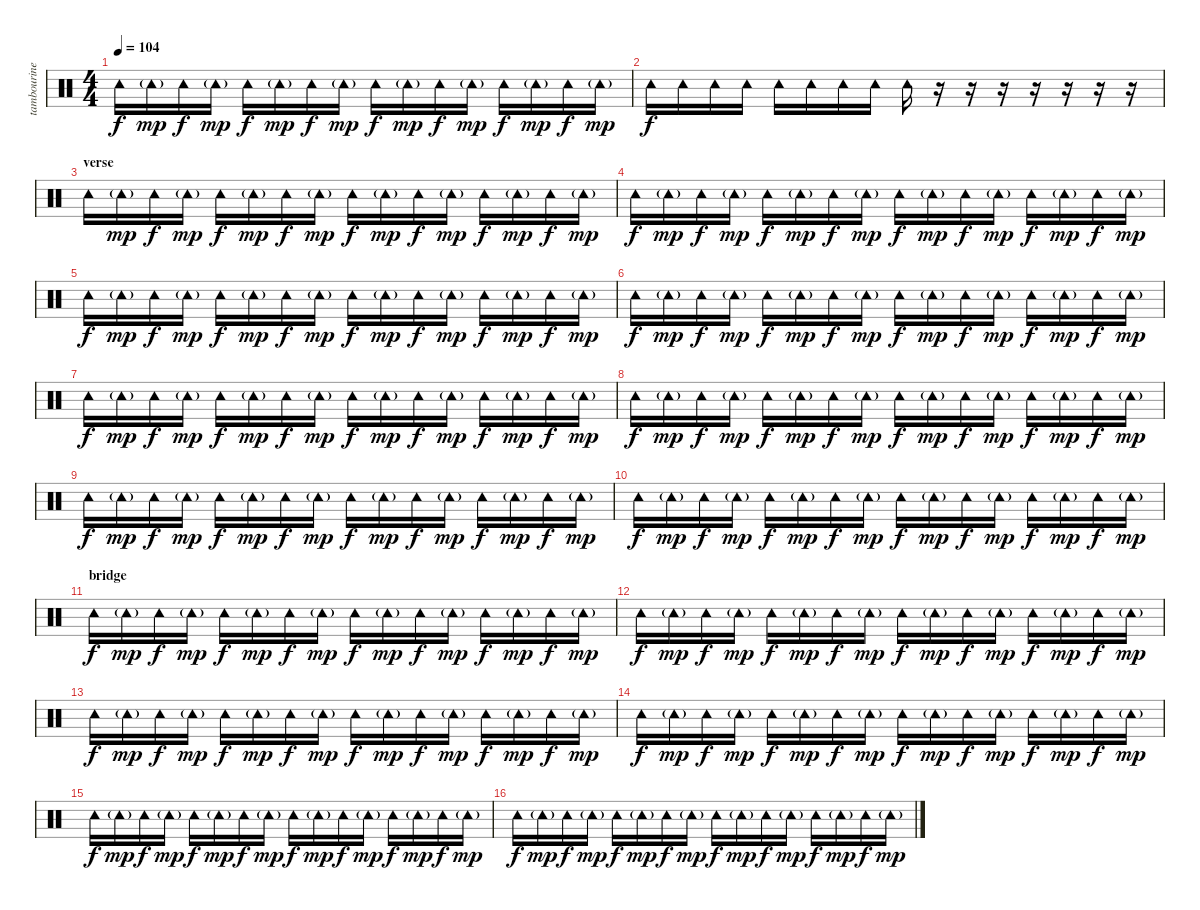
\track ("tambourine" "tambourine") {instrument percussion}
\staff {score}
\articulation defaults
\ts (4 4)
\tempo 104
\clef neutral
\ks c "Tambourine (hit)".16{dy f} "Tambourine (hit)"{g}.16{dy mp} "Tambourine (hit)".16{dy f} "Tambourine (hit)"{g}.16{dy mp} "Tambourine (hit)".16{dy f} "Tambourine (hit)"{g}.16{dy mp} "Tambourine (hit)".16{dy f} "Tambourine (hit)"{g}.16{dy mp} "Tambourine (hit)".16{dy f} "Tambourine (hit)"{g}.16{dy mp} "Tambourine (hit)".16{dy f} "Tambourine (hit)"{g}.16{dy mp} "Tambourine (hit)".16{dy f} "Tambourine (hit)"{g}.16{dy mp} "Tambourine (hit)".16{dy f} "Tambourine (hit)"{g}.16{dy mp}
|
"Tambourine (hit)".16{dy f} "Tambourine (hit)".16 "Tambourine (hit)".16 "Tambourine (hit)".16 "Tambourine (hit)".16 "Tambourine (hit)".16 "Tambourine (hit)".16 "Tambourine (hit)".16 "Tambourine (hit)".16 r.16 r.16 r.16 r.16 r.16 r.16 r.16 |
\section ("" "verse")
"Tambourine (hit)".16 "Tambourine (hit)"{g}.16{dy mp} "Tambourine (hit)".16{dy f} "Tambourine (hit)"{g}.16{dy mp} "Tambourine (hit)".16{dy f} "Tambourine (hit)"{g}.16{dy mp} "Tambourine (hit)".16{dy f} "Tambourine (hit)"{g}.16{dy mp} "Tambourine (hit)".16{dy f} "Tambourine (hit)"{g}.16{dy mp} "Tambourine (hit)".16{dy f} "Tambourine (hit)"{g}.16{dy mp} "Tambourine (hit)".16{dy f} "Tambourine (hit)"{g}.16{dy mp} "Tambourine (hit)".16{dy f} "Tambourine (hit)"{g}.16{dy mp} |
"Tambourine (hit)".16{dy f} "Tambourine (hit)"{g}.16{dy mp} "Tambourine (hit)".16{dy f} "Tambourine (hit)"{g}.16{dy mp} "Tambourine (hit)".16{dy f} "Tambourine (hit)"{g}.16{dy mp} "Tambourine (hit)".16{dy f} "Tambourine (hit)"{g}.16{dy mp} "Tambourine (hit)".16{dy f} "Tambourine (hit)"{g}.16{dy mp} "Tambourine (hit)".16{dy f} "Tambourine (hit)"{g}.16{dy mp} "Tambourine (hit)".16{dy f} "Tambourine (hit)"{g}.16{dy mp} "Tambourine (hit)".16{dy f} "Tambourine (hit)"{g}.16{dy mp} |
"Tambourine (hit)".16{dy f} "Tambourine (hit)"{g}.16{dy mp} "Tambourine (hit)".16{dy f} "Tambourine (hit)"{g}.16{dy mp} "Tambourine (hit)".16{dy f} "Tambourine (hit)"{g}.16{dy mp} "Tambourine (hit)".16{dy f} "Tambourine (hit)"{g}.16{dy mp} "Tambourine (hit)".16{dy f} "Tambourine (hit)"{g}.16{dy mp} "Tambourine (hit)".16{dy f} "Tambourine (hit)"{g}.16{dy mp} "Tambourine (hit)".16{dy f} "Tambourine (hit)"{g}.16{dy mp} "Tambourine (hit)".16{dy f} "Tambourine (hit)"{g}.16{dy mp} |
"Tambourine (hit)".16{dy f} "Tambourine (hit)"{g}.16{dy mp} "Tambourine (hit)".16{dy f} "Tambourine (hit)"{g}.16{dy mp} "Tambourine (hit)".16{dy f} "Tambourine (hit)"{g}.16{dy mp} "Tambourine (hit)".16{dy f} "Tambourine (hit)"{g}.16{dy mp} "Tambourine (hit)".16{dy f} "Tambourine (hit)"{g}.16{dy mp} "Tambourine (hit)".16{dy f} "Tambourine (hit)"{g}.16{dy mp} "Tambourine (hit)".16{dy f} "Tambourine (hit)"{g}.16{dy mp} "Tambourine (hit)".16{dy f} "Tambourine (hit)"{g}.16{dy mp} |
"Tambourine (hit)".16{dy f} "Tambourine (hit)"{g}.16{dy mp} "Tambourine (hit)".16{dy f} "Tambourine (hit)"{g}.16{dy mp} "Tambourine (hit)".16{dy f} "Tambourine (hit)"{g}.16{dy mp} "Tambourine (hit)".16{dy f} "Tambourine (hit)"{g}.16{dy mp} "Tambourine (hit)".16{dy f} "Tambourine (hit)"{g}.16{dy mp} "Tambourine (hit)".16{dy f} "Tambourine (hit)"{g}.16{dy mp} "Tambourine (hit)".16{dy f} "Tambourine (hit)"{g}.16{dy mp} "Tambourine (hit)".16{dy f} "Tambourine (hit)"{g}.16{dy mp} |
"Tambourine (hit)".16{dy f} "Tambourine (hit)"{g}.16{dy mp} "Tambourine (hit)".16{dy f} "Tambourine (hit)"{g}.16{dy mp} "Tambourine (hit)".16{dy f} "Tambourine (hit)"{g}.16{dy mp} "Tambourine (hit)".16{dy f} "Tambourine (hit)"{g}.16{dy mp} "Tambourine (hit)".16{dy f} "Tambourine (hit)"{g}.16{dy mp} "Tambourine (hit)".16{dy f} "Tambourine (hit)"{g}.16{dy mp} "Tambourine (hit)".16{dy f} "Tambourine (hit)"{g}.16{dy mp} "Tambourine (hit)".16{dy f} "Tambourine (hit)"{g}.16{dy mp} |
"Tambourine (hit)".16{dy f} "Tambourine (hit)"{g}.16{dy mp} "Tambourine (hit)".16{dy f} "Tambourine (hit)"{g}.16{dy mp} "Tambourine (hit)".16{dy f} "Tambourine (hit)"{g}.16{dy mp} "Tambourine (hit)".16{dy f} "Tambourine (hit)"{g}.16{dy mp} "Tambourine (hit)".16{dy f} "Tambourine (hit)"{g}.16{dy mp} "Tambourine (hit)".16{dy f} "Tambourine (hit)"{g}.16{dy mp} "Tambourine (hit)".16{dy f} "Tambourine (hit)"{g}.16{dy mp} "Tambourine (hit)".16{dy f} "Tambourine (hit)"{g}.16{dy mp} |
"Tambourine (hit)".16{dy f} "Tambourine (hit)"{g}.16{dy mp} "Tambourine (hit)".16{dy f} "Tambourine (hit)"{g}.16{dy mp} "Tambourine (hit)".16{dy f} "Tambourine (hit)"{g}.16{dy mp} "Tambourine (hit)".16{dy f} "Tambourine (hit)"{g}.16{dy mp} "Tambourine (hit)".16{dy f} "Tambourine (hit)"{g}.16{dy mp} "Tambourine (hit)".16{dy f} "Tambourine (hit)"{g}.16{dy mp} "Tambourine (hit)".16{dy f} "Tambourine (hit)"{g}.16{dy mp} "Tambourine (hit)".16{dy f} "Tambourine (hit)"{g}.16{dy mp} |
\section ("" "bridge")
"Tambourine (hit)".16{dy f} "Tambourine (hit)"{g}.16{dy mp} "Tambourine (hit)".16{dy f} "Tambourine (hit)"{g}.16{dy mp} "Tambourine (hit)".16{dy f} "Tambourine (hit)"{g}.16{dy mp} "Tambourine (hit)".16{dy f} "Tambourine (hit)"{g}.16{dy mp} "Tambourine (hit)".16{dy f} "Tambourine (hit)"{g}.16{dy mp} "Tambourine (hit)".16{dy f} "Tambourine (hit)"{g}.16{dy mp} "Tambourine (hit)".16{dy f} "Tambourine (hit)"{g}.16{dy mp} "Tambourine (hit)".16{dy f} "Tambourine (hit)"{g}.16{dy mp} |
"Tambourine (hit)".16{dy f} "Tambourine (hit)"{g}.16{dy mp} "Tambourine (hit)".16{dy f} "Tambourine (hit)"{g}.16{dy mp} "Tambourine (hit)".16{dy f} "Tambourine (hit)"{g}.16{dy mp} "Tambourine (hit)".16{dy f} "Tambourine (hit)"{g}.16{dy mp} "Tambourine (hit)".16{dy f} "Tambourine (hit)"{g}.16{dy mp} "Tambourine (hit)".16{dy f} "Tambourine (hit)"{g}.16{dy mp} "Tambourine (hit)".16{dy f} "Tambourine (hit)"{g}.16{dy mp} "Tambourine (hit)".16{dy f} "Tambourine (hit)"{g}.16{dy mp} |
"Tambourine (hit)".16{dy f} "Tambourine (hit)"{g}.16{dy mp} "Tambourine (hit)".16{dy f} "Tambourine (hit)"{g}.16{dy mp} "Tambourine (hit)".16{dy f} "Tambourine (hit)"{g}.16{dy mp} "Tambourine (hit)".16{dy f} "Tambourine (hit)"{g}.16{dy mp} "Tambourine (hit)".16{dy f} "Tambourine (hit)"{g}.16{dy mp} "Tambourine (hit)".16{dy f} "Tambourine (hit)"{g}.16{dy mp} "Tambourine (hit)".16{dy f} "Tambourine (hit)"{g}.16{dy mp} "Tambourine (hit)".16{dy f} "Tambourine (hit)"{g}.16{dy mp} |
"Tambourine (hit)".16{dy f} "Tambourine (hit)"{g}.16{dy mp} "Tambourine (hit)".16{dy f} "Tambourine (hit)"{g}.16{dy mp} "Tambourine (hit)".16{dy f} "Tambourine (hit)"{g}.16{dy mp} "Tambourine (hit)".16{dy f} "Tambourine (hit)"{g}.16{dy mp} "Tambourine (hit)".16{dy f} "Tambourine (hit)"{g}.16{dy mp} "Tambourine (hit)".16{dy f} "Tambourine (hit)"{g}.16{dy mp} "Tambourine (hit)".16{dy f} "Tambourine (hit)"{g}.16{dy mp} "Tambourine (hit)".16{dy f} "Tambourine (hit)"{g}.16{dy mp} |
"Tambourine (hit)".16{dy f} "Tambourine (hit)"{g}.16{dy mp} "Tambourine (hit)".16{dy f} "Tambourine (hit)"{g}.16{dy mp} "Tambourine (hit)".16{dy f} "Tambourine (hit)"{g}.16{dy mp} "Tambourine (hit)".16{dy f} "Tambourine (hit)"{g}.16{dy mp} "Tambourine (hit)".16{dy f} "Tambourine (hit)"{g}.16{dy mp} "Tambourine (hit)".16{dy f} "Tambourine (hit)"{g}.16{dy mp} "Tambourine (hit)".16{dy f} "Tambourine (hit)"{g}.16{dy mp} "Tambourine (hit)".16{dy f} "Tambourine (hit)"{g}.16{dy mp} |
"Tambourine (hit)".16{dy f} "Tambourine (hit)"{g}.16{dy mp} "Tambourine (hit)".16{dy f} "Tambourine (hit)"{g}.16{dy mp} "Tambourine (hit)".16{dy f} "Tambourine (hit)"{g}.16{dy mp} "Tambourine (hit)".16{dy f} "Tambourine (hit)"{g}.16{dy mp} "Tambourine (hit)".16{dy f} "Tambourine (hit)"{g}.16{dy mp} "Tambourine (hit)".16{dy f} "Tambourine (hit)"{g}.16{dy mp} "Tambourine (hit)".16{dy f} "Tambourine (hit)"{g}.16{dy mp} "Tambourine (hit)".16{dy f} "Tambourine (hit)"{g}.16{dy mp}
